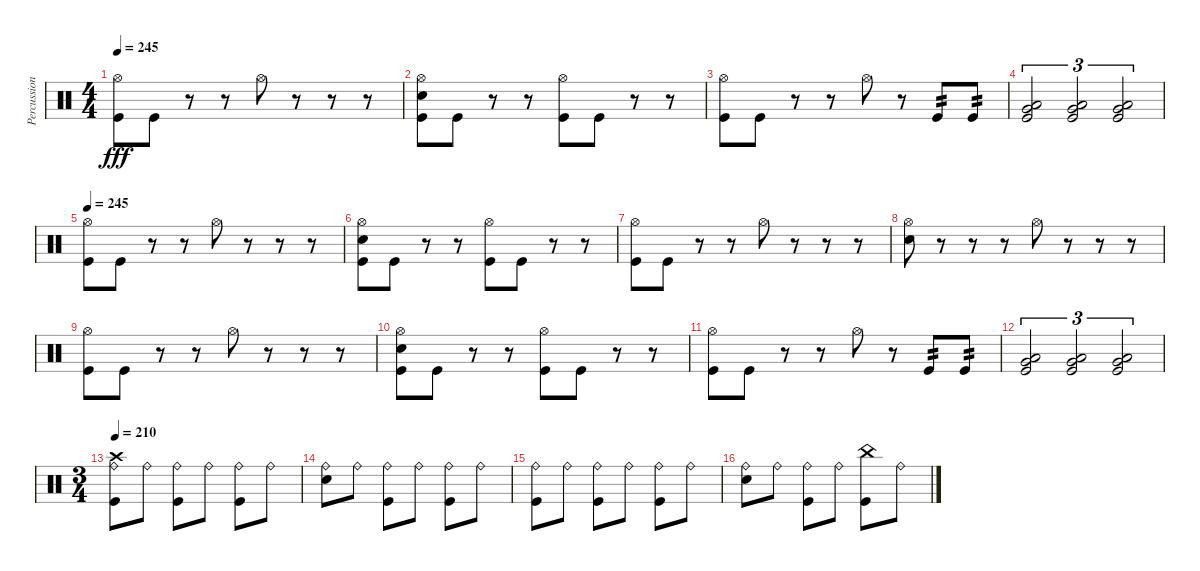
\track ("Percussion" "Percussion") {instrument percussion}
\staff {score}
\articulation defaults
\ts (4 4)
\tempo 245
\clef neutral
\ks c
("Hi-Hat (open)" "Kick (hit)").8{dy fff} "Kick (hit)".8 r.8 r.8 "Hi-Hat (open)".8 r.8 r.8 r.8 |
("Hi-Hat (open)" "Electric Snare (hit)" "Kick (hit)").8 "Kick (hit)".8 r.8 r.8 ("Hi-Hat (open)" "Kick (hit)").8 "Kick (hit)".8 r.8 r.8 |
("Hi-Hat (open)" "Kick (hit)").8 "Kick (hit)".8 r.8 r.8 "Hi-Hat (open)".8 r.8 "Kick (hit)".8{tp 2} "Kick (hit)".8{tp 2} |
("Very Low Tom (hit)" "Low Floor Tom (hit)" "Kick (hit)").2{tu (3 2)} ("Very Low Tom (hit)" "Low Floor Tom (hit)" "Kick (hit)").2{tu (3 2)} ("Very Low Tom (hit)" "Low Floor Tom (hit)" "Kick (hit)").2{tu (3 2)} |
\tempo 245
("Hi-Hat (open)" "Kick (hit)").8 "Kick (hit)".8 r.8 r.8 "Hi-Hat (open)".8 r.8 r.8 r.8 |
("Hi-Hat (open)" "Electric Snare (hit)" "Kick (hit)").8 "Kick (hit)".8 r.8 r.8 ("Hi-Hat (open)" "Kick (hit)").8 "Kick (hit)".8 r.8 r.8 |
("Hi-Hat (open)" "Kick (hit)").8 "Kick (hit)".8 r.8 r.8 "Hi-Hat (open)".8 r.8 r.8 r.8 |
("Hi-Hat (open)" "Electric Snare (hit)").8 r.8 r.8 r.8 "Hi-Hat (open)".8 r.8 r.8 r.8 |
("Hi-Hat (open)" "Kick (hit)").8 "Kick (hit)".8 r.8 r.8 "Hi-Hat (open)".8 r.8 r.8 r.8 |
("Hi-Hat (open)" "Electric Snare (hit)" "Kick (hit)").8 "Kick (hit)".8 r.8 r.8 ("Hi-Hat (open)" "Kick (hit)").8 "Kick (hit)".8 r.8 r.8 |
("Hi-Hat (open)" "Kick (hit)").8 "Kick (hit)".8 r.8 r.8 "Hi-Hat (open)".8 r.8 "Kick (hit)".8{tp 2} "Kick (hit)".8{tp 2} |
("Very Low Tom (hit)" "Low Floor Tom (hit)" "Kick (hit)").2{tu (3 2)} ("Very Low Tom (hit)" "Low Floor Tom (hit)" "Kick (hit)").2{tu (3 2)} ("Very Low Tom (hit)" "Low Floor Tom (hit)" "Kick (hit)").2{tu (3 2)} |
\ts (3 4)
\tempo 210
("Crash high (hit)" "Ride (bell)" "Kick (hit)").8 "Ride (bell)".8 ("Ride (bell)" "Kick (hit)").8 "Ride (bell)".8 ("Ride (bell)" "Kick (hit)").8 "Ride (bell)".8 |
("Ride (bell)" "Electric Snare (hit)").8 "Ride (bell)".8 ("Ride (bell)" "Kick (hit)").8 "Ride (bell)".8 ("Ride (bell)" "Kick (hit)").8 "Ride (bell)".8 |
("Ride (bell)" "Kick (hit)").8 "Ride (bell)".8 ("Ride (bell)" "Kick (hit)").8 "Ride (bell)".8 ("Ride (bell)" "Kick (hit)").8 "Ride (bell)".8 |
("Ride (bell)" "Electric Snare (hit)").8 "Ride (bell)".8 ("Ride (bell)" "Kick (hit)").8 "Ride (bell)".8 ("China (hit)" "Kick (hit)").8 "Ride (bell)".8
